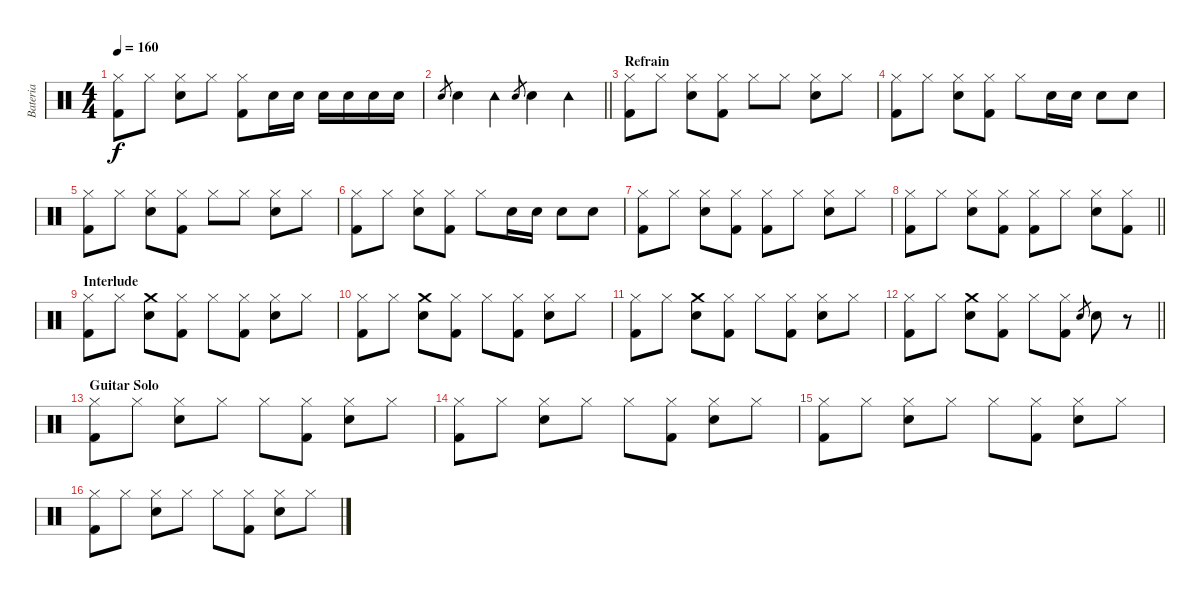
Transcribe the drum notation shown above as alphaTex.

\track ("Bateria" "Bateria") {instrument percussion}
\staff {score}
\articulation defaults
\ts (4 4)
\tempo 160
\clef neutral
\ks c
("Hi-Hat (closed)" "Kick (hit) 2").8{dy f} "Hi-Hat (closed)".8 ("Hi-Hat (closed)" "Electric Snare (hit)").8 "Hi-Hat (closed)".8 ("Hi-Hat (closed)" "Kick (hit) 2").8 "Electric Snare (hit)".16 "Electric Snare (hit)".16 "Electric Snare (hit)".16 "Electric Snare (hit)".16 "Electric Snare (hit)".16 "Electric Snare (hit)".16 |
\barLineRight lightlight "Electric Snare (hit)".8{gr} "Electric Snare (hit)".4 "Tambourine (hit)".4 "Electric Snare (hit)".8{gr} "Electric Snare (hit)".4 "Tambourine (hit)".4
|
\section ("" "Refrain")
("Hi-Hat (closed)" "Kick (hit) 2").8 "Hi-Hat (closed)".8 ("Hi-Hat (closed)" "Electric Snare (hit)").8 ("Hi-Hat (closed)" "Kick (hit) 2").8 "Hi-Hat (closed)".8 "Hi-Hat (closed)".8 ("Hi-Hat (closed)" "Electric Snare (hit)").8 "Hi-Hat (closed)".8 |
("Hi-Hat (closed)" "Kick (hit) 2").8 "Hi-Hat (closed)".8 ("Hi-Hat (closed)" "Electric Snare (hit)").8 ("Hi-Hat (closed)" "Kick (hit) 2").8 "Hi-Hat (closed)".8 "Electric Snare (hit)".16 "Electric Snare (hit)".16 "Electric Snare (hit)".8 "Electric Snare (hit)".8 |
("Hi-Hat (closed)" "Kick (hit) 2").8 "Hi-Hat (closed)".8 ("Hi-Hat (closed)" "Electric Snare (hit)").8 ("Hi-Hat (closed)" "Kick (hit) 2").8 "Hi-Hat (closed)".8 "Hi-Hat (closed)".8 ("Hi-Hat (closed)" "Electric Snare (hit)").8 "Hi-Hat (closed)".8 |
("Hi-Hat (closed)" "Kick (hit) 2").8 "Hi-Hat (closed)".8 ("Hi-Hat (closed)" "Electric Snare (hit)").8 ("Hi-Hat (closed)" "Kick (hit) 2").8 "Hi-Hat (closed)".8 "Electric Snare (hit)".16 "Electric Snare (hit)".16 "Electric Snare (hit)".8 "Electric Snare (hit)".8 |
("Hi-Hat (closed)" "Kick (hit) 2").8 "Hi-Hat (closed)".8 ("Hi-Hat (closed)" "Electric Snare (hit)").8 ("Hi-Hat (closed)" "Kick (hit) 2").8 ("Hi-Hat (closed)" "Kick (hit) 2").8 "Hi-Hat (closed)".8 ("Hi-Hat (closed)" "Electric Snare (hit)").8 "Hi-Hat (closed)".8 |
\barLineRight lightlight
("Hi-Hat (closed)" "Kick (hit) 2").8 "Hi-Hat (closed)".8 ("Hi-Hat (closed)" "Electric Snare (hit)").8 ("Hi-Hat (closed)" "Kick (hit) 2").8 ("Hi-Hat (closed)" "Kick (hit) 2").8 "Hi-Hat (closed)".8 ("Hi-Hat (closed)" "Electric Snare (hit)").8 ("Hi-Hat (closed)" "Kick (hit) 2").8 |
\section ("" "Interlude")
("Hi-Hat (closed)" "Kick (hit) 2").8 "Hi-Hat (closed)".8 ("Crash medium (hit)" "Electric Snare (hit)").8 ("Hi-Hat (closed)" "Kick (hit) 2").8 "Hi-Hat (closed)".8 ("Hi-Hat (closed)" "Kick (hit) 2").8 ("Hi-Hat (closed)" "Electric Snare (hit)").8 "Hi-Hat (closed)".8 |
("Hi-Hat (closed)" "Kick (hit) 2").8 "Hi-Hat (closed)".8 ("Crash medium (hit)" "Electric Snare (hit)").8 ("Hi-Hat (closed)" "Kick (hit) 2").8 "Hi-Hat (closed)".8 ("Hi-Hat (closed)" "Kick (hit) 2").8 ("Hi-Hat (closed)" "Electric Snare (hit)").8 "Hi-Hat (closed)".8 |
("Hi-Hat (closed)" "Kick (hit) 2").8 "Hi-Hat (closed)".8 ("Crash medium (hit)" "Electric Snare (hit)").8 ("Hi-Hat (closed)" "Kick (hit) 2").8 "Hi-Hat (closed)".8 ("Hi-Hat (closed)" "Kick (hit) 2").8 ("Hi-Hat (closed)" "Electric Snare (hit)").8 "Hi-Hat (closed)".8 |
\barLineRight lightlight
("Hi-Hat (closed)" "Kick (hit) 2").8 "Hi-Hat (closed)".8 ("Crash medium (hit)" "Electric Snare (hit)").8 ("Hi-Hat (closed)" "Kick (hit) 2").8 "Hi-Hat (closed)".8 ("Hi-Hat (closed)" "Kick (hit) 2").8 "Electric Snare (hit)".8{gr} "Electric Snare (hit)".8 r.8 |
\section ("" "Guitar Solo")
("Hi-Hat (closed)" "Kick (hit) 2").8 "Hi-Hat (closed)".8 ("Hi-Hat (closed)" "Electric Snare (hit)").8 "Hi-Hat (closed)".8 "Hi-Hat (closed)".8 ("Hi-Hat (closed)" "Kick (hit) 2").8 ("Hi-Hat (closed)" "Electric Snare (hit)").8 "Hi-Hat (closed)".8 |
("Hi-Hat (closed)" "Kick (hit) 2").8 "Hi-Hat (closed)".8 ("Hi-Hat (closed)" "Electric Snare (hit)").8 "Hi-Hat (closed)".8 "Hi-Hat (closed)".8 ("Hi-Hat (closed)" "Kick (hit) 2").8 ("Hi-Hat (closed)" "Electric Snare (hit)").8 "Hi-Hat (closed)".8 |
("Hi-Hat (closed)" "Kick (hit) 2").8 "Hi-Hat (closed)".8 ("Hi-Hat (closed)" "Electric Snare (hit)").8 "Hi-Hat (closed)".8 "Hi-Hat (closed)".8 ("Hi-Hat (closed)" "Kick (hit) 2").8 ("Hi-Hat (closed)" "Electric Snare (hit)").8 "Hi-Hat (closed)".8 |
("Hi-Hat (closed)" "Kick (hit) 2").8 "Hi-Hat (closed)".8 ("Hi-Hat (closed)" "Electric Snare (hit)").8 "Hi-Hat (closed)".8 "Hi-Hat (closed)".8 ("Hi-Hat (closed)" "Kick (hit) 2").8 ("Hi-Hat (closed)" "Electric Snare (hit)").8 "Hi-Hat (closed)".8
